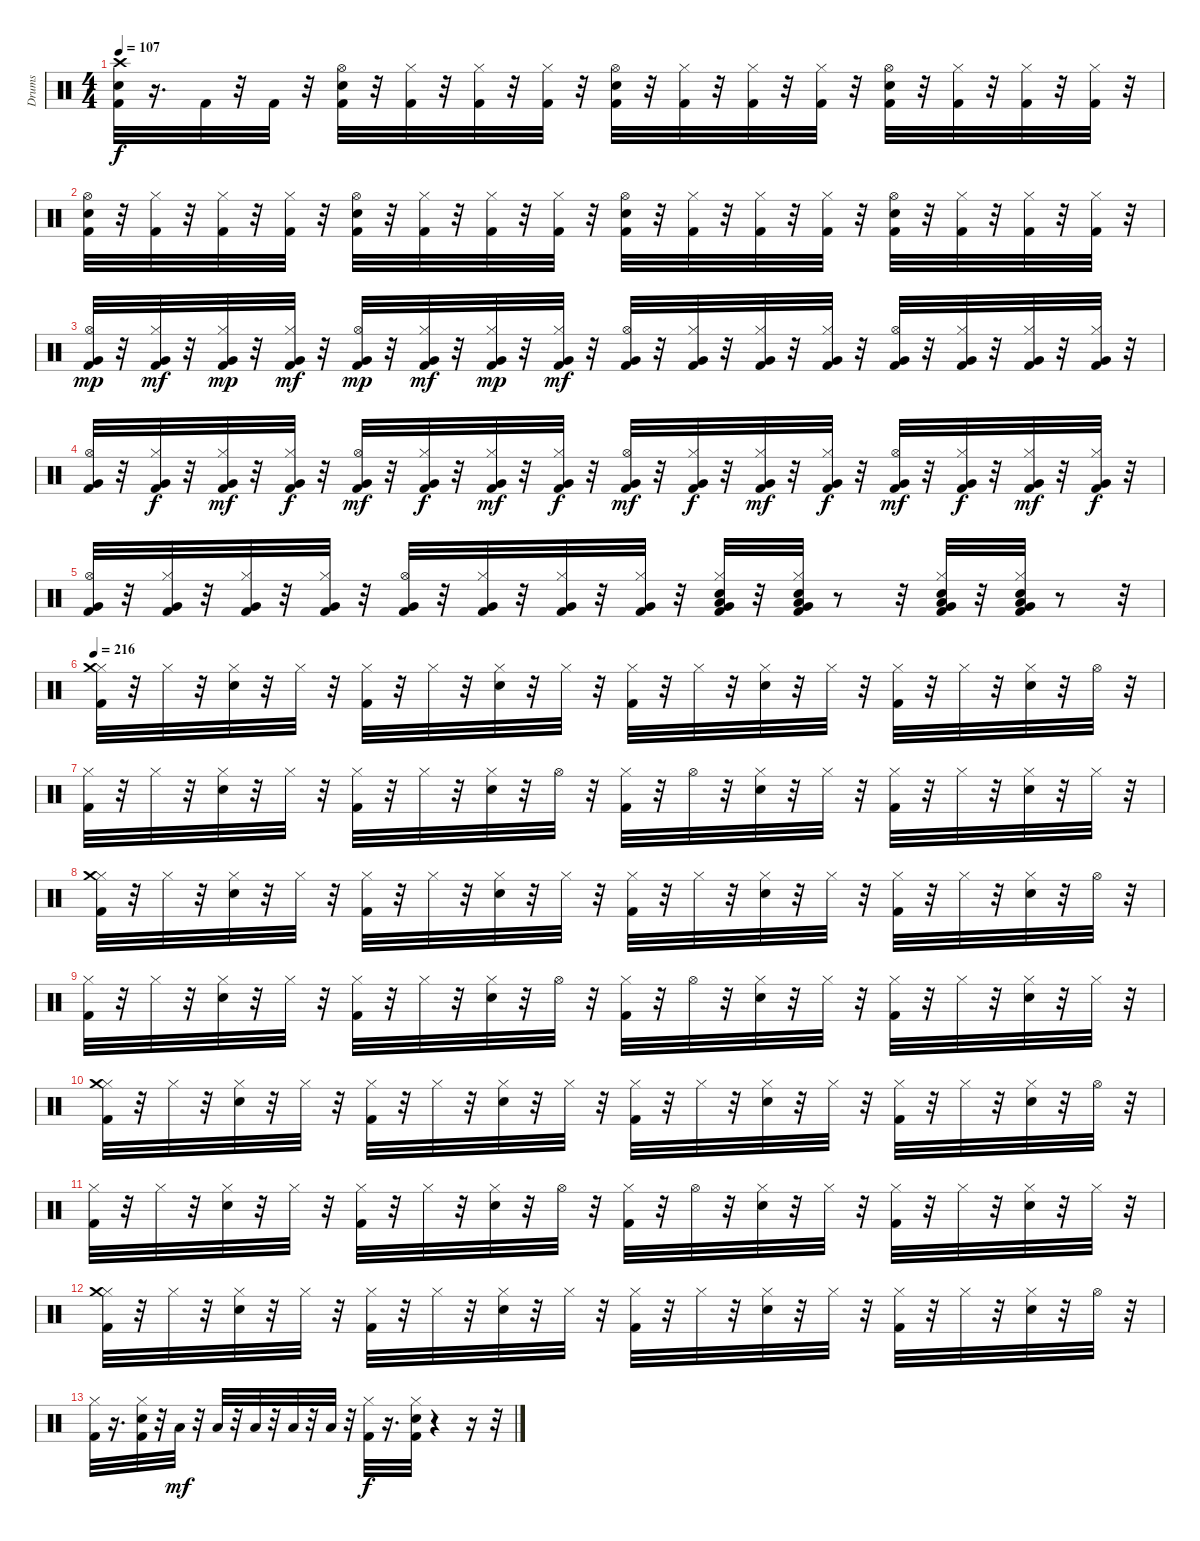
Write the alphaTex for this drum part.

\track ("Drums" "Drums") {instrument percussion}
\staff {score}
\articulation defaults
\ts (4 4)
\tempo 107
\clef neutral
\ks c
("Kick (hit) 2" "Snare (hit) 2" "Crash high (hit)").32{dy f} r.16{d} "Kick (hit) 2".32 r.32 "Kick (hit) 2".32 r.32 ("Kick (hit) 2" "Snare (hit) 2" "Hi-Hat (open)").32 r.32 ("Kick (hit) 2" "Hi-Hat (closed)").32 r.32 ("Kick (hit) 2" "Hi-Hat (closed)").32 r.32 ("Kick (hit) 2" "Hi-Hat (closed)").32 r.32 ("Kick (hit) 2" "Snare (hit) 2" "Hi-Hat (open)").32 r.32 ("Kick (hit) 2" "Hi-Hat (closed)").32 r.32 ("Kick (hit) 2" "Hi-Hat (closed)").32 r.32 ("Kick (hit) 2" "Hi-Hat (closed)").32 r.32 ("Kick (hit) 2" "Snare (hit) 2" "Hi-Hat (open)").32 r.32 ("Kick (hit) 2" "Hi-Hat (closed)").32 r.32 ("Kick (hit) 2" "Hi-Hat (closed)").32 r.32 ("Kick (hit) 2" "Hi-Hat (closed)").32 r.32 |
("Kick (hit) 2" "Snare (hit) 2" "Hi-Hat (open)").32 r.32 ("Kick (hit) 2" "Hi-Hat (closed)").32 r.32 ("Kick (hit) 2" "Hi-Hat (closed)").32 r.32 ("Kick (hit) 2" "Hi-Hat (closed)").32 r.32 ("Kick (hit) 2" "Snare (hit) 2" "Hi-Hat (open)").32 r.32 ("Kick (hit) 2" "Hi-Hat (closed)").32 r.32 ("Kick (hit) 2" "Hi-Hat (closed)").32 r.32 ("Kick (hit) 2" "Hi-Hat (closed)").32 r.32 ("Kick (hit) 2" "Snare (hit) 2" "Hi-Hat (open)").32 r.32 ("Kick (hit) 2" "Hi-Hat (closed)").32 r.32 ("Kick (hit) 2" "Hi-Hat (closed)").32 r.32 ("Kick (hit) 2" "Hi-Hat (closed)").32 r.32 ("Kick (hit) 2" "Snare (hit) 2" "Hi-Hat (open)").32 r.32 ("Kick (hit) 2" "Hi-Hat (closed)").32 r.32 ("Kick (hit) 2" "Hi-Hat (closed)").32 r.32 ("Kick (hit) 2" "Hi-Hat (closed)").32 r.32 |
("Kick (hit) 2" "Very Low Tom (hit)" "Hi-Hat (open)").32{dy mp} r.32 ("Kick (hit) 2" "Hi-Hat (closed)" "Very Low Tom (hit)").32{dy mf} r.32 ("Kick (hit) 2" "Hi-Hat (closed)" "Very Low Tom (hit)").32{dy mp} r.32 ("Kick (hit) 2" "Hi-Hat (closed)" "Very Low Tom (hit)").32{dy mf} r.32 ("Kick (hit) 2" "Very Low Tom (hit)" "Hi-Hat (open)").32{dy mp} r.32 ("Kick (hit) 2" "Hi-Hat (closed)" "Very Low Tom (hit)").32{dy mf} r.32 ("Kick (hit) 2" "Hi-Hat (closed)" "Very Low Tom (hit)").32{dy mp} r.32 ("Kick (hit) 2" "Hi-Hat (closed)" "Very Low Tom (hit)").32{dy mf} r.32 ("Kick (hit) 2" "Very Low Tom (hit)" "Hi-Hat (open)").32 r.32 ("Kick (hit) 2" "Hi-Hat (closed)" "Very Low Tom (hit)").32 r.32 ("Kick (hit) 2" "Hi-Hat (closed)" "Very Low Tom (hit)").32 r.32 ("Kick (hit) 2" "Hi-Hat (closed)" "Very Low Tom (hit)").32 r.32 ("Kick (hit) 2" "Very Low Tom (hit)" "Hi-Hat (open)").32 r.32 ("Kick (hit) 2" "Hi-Hat (closed)" "Very Low Tom (hit)").32 r.32 ("Kick (hit) 2" "Hi-Hat (closed)" "Very Low Tom (hit)").32 r.32 ("Kick (hit) 2" "Hi-Hat (closed)" "Very Low Tom (hit)").32 r.32 |
("Kick (hit) 2" "Very Low Tom (hit)" "Hi-Hat (open)").32 r.32 ("Kick (hit) 2" "Hi-Hat (closed)" "Very Low Tom (hit)").32{dy f} r.32 ("Kick (hit) 2" "Hi-Hat (closed)" "Very Low Tom (hit)").32{dy mf} r.32 ("Kick (hit) 2" "Hi-Hat (closed)" "Very Low Tom (hit)").32{dy f} r.32 ("Kick (hit) 2" "Very Low Tom (hit)" "Hi-Hat (open)").32{dy mf} r.32 ("Kick (hit) 2" "Hi-Hat (closed)" "Very Low Tom (hit)").32{dy f} r.32 ("Kick (hit) 2" "Hi-Hat (closed)" "Very Low Tom (hit)").32{dy mf} r.32 ("Kick (hit) 2" "Hi-Hat (closed)" "Very Low Tom (hit)").32{dy f} r.32 ("Kick (hit) 2" "Very Low Tom (hit)" "Hi-Hat (open)").32{dy mf} r.32 ("Kick (hit) 2" "Hi-Hat (closed)" "Very Low Tom (hit)").32{dy f} r.32 ("Kick (hit) 2" "Hi-Hat (closed)" "Very Low Tom (hit)").32{dy mf} r.32 ("Kick (hit) 2" "Hi-Hat (closed)" "Very Low Tom (hit)").32{dy f} r.32 ("Kick (hit) 2" "Very Low Tom (hit)" "Hi-Hat (open)").32{dy mf} r.32 ("Kick (hit) 2" "Hi-Hat (closed)" "Very Low Tom (hit)").32{dy f} r.32 ("Kick (hit) 2" "Hi-Hat (closed)" "Very Low Tom (hit)").32{dy mf} r.32 ("Kick (hit) 2" "Hi-Hat (closed)" "Very Low Tom (hit)").32{dy f} r.32 |
("Kick (hit) 2" "Very Low Tom (hit)" "Hi-Hat (open)").32 r.32 ("Kick (hit) 2" "Hi-Hat (closed)" "Very Low Tom (hit)").32 r.32 ("Kick (hit) 2" "Hi-Hat (closed)" "Very Low Tom (hit)").32 r.32 ("Kick (hit) 2" "Hi-Hat (closed)" "Very Low Tom (hit)").32 r.32 ("Kick (hit) 2" "Very Low Tom (hit)" "Hi-Hat (open)").32 r.32 ("Kick (hit) 2" "Hi-Hat (closed)" "Very Low Tom (hit)").32 r.32 ("Kick (hit) 2" "Hi-Hat (closed)" "Very Low Tom (hit)").32 r.32 ("Kick (hit) 2" "Hi-Hat (closed)" "Very Low Tom (hit)").32 r.32 ("Kick (hit) 2" "Snare (hit) 2" "Low Floor Tom (hit)" "Hi-Hat (closed)" "Very Low Tom (hit)").32 r.32 ("Kick (hit) 2" "Snare (hit) 2" "Low Floor Tom (hit)" "Hi-Hat (closed)" "Very Low Tom (hit)").32 r.8 r.32 ("Kick (hit) 2" "Snare (hit) 2" "Low Floor Tom (hit)" "Hi-Hat (closed)" "Very Low Tom (hit)").32 r.32 ("Kick (hit) 2" "Snare (hit) 2" "Low Floor Tom (hit)" "Hi-Hat (closed)" "Very Low Tom (hit)").32 r.8 r.32 |
\tempo 216
("Kick (hit) 2" "Hi-Hat (closed)" "Crash medium (hit)").32 r.32 "Hi-Hat (closed)".32 r.32 ("Snare (hit) 2" "Hi-Hat (closed)").32 r.32 "Hi-Hat (closed)".32 r.32 ("Kick (hit) 2" "Hi-Hat (closed)").32 r.32 "Hi-Hat (closed)".32 r.32 ("Snare (hit) 2" "Hi-Hat (closed)").32 r.32 "Hi-Hat (closed)".32 r.32 ("Kick (hit) 2" "Hi-Hat (closed)").32 r.32 "Hi-Hat (closed)".32 r.32 ("Snare (hit) 2" "Hi-Hat (closed)").32 r.32 "Hi-Hat (closed)".32 r.32 ("Kick (hit) 2" "Hi-Hat (closed)").32 r.32 "Hi-Hat (closed)".32 r.32 ("Snare (hit) 2" "Hi-Hat (closed)").32 r.32 "Hi-Hat (open)".32 r.32 |
("Kick (hit) 2" "Hi-Hat (closed)").32 r.32 "Hi-Hat (closed)".32 r.32 ("Snare (hit) 2" "Hi-Hat (closed)").32 r.32 "Hi-Hat (closed)".32 r.32 ("Kick (hit) 2" "Hi-Hat (closed)").32 r.32 "Hi-Hat (closed)".32 r.32 ("Snare (hit) 2" "Hi-Hat (closed)").32 r.32 "Hi-Hat (open)".32 r.32 ("Kick (hit) 2" "Hi-Hat (closed)").32 r.32 "Hi-Hat (open)".32 r.32 ("Snare (hit) 2" "Hi-Hat (closed)").32 r.32 "Hi-Hat (closed)".32 r.32 ("Kick (hit) 2" "Hi-Hat (closed)").32 r.32 "Hi-Hat (closed)".32 r.32 ("Snare (hit) 2" "Hi-Hat (closed)").32 r.32 "Hi-Hat (closed)".32 r.32 |
("Kick (hit) 2" "Hi-Hat (closed)" "Crash medium (hit)").32 r.32 "Hi-Hat (closed)".32 r.32 ("Snare (hit) 2" "Hi-Hat (closed)").32 r.32 "Hi-Hat (closed)".32 r.32 ("Kick (hit) 2" "Hi-Hat (closed)").32 r.32 "Hi-Hat (closed)".32 r.32 ("Snare (hit) 2" "Hi-Hat (closed)").32 r.32 "Hi-Hat (closed)".32 r.32 ("Kick (hit) 2" "Hi-Hat (closed)").32 r.32 "Hi-Hat (closed)".32 r.32 ("Snare (hit) 2" "Hi-Hat (closed)").32 r.32 "Hi-Hat (closed)".32 r.32 ("Kick (hit) 2" "Hi-Hat (closed)").32 r.32 "Hi-Hat (closed)".32 r.32 ("Snare (hit) 2" "Hi-Hat (closed)").32 r.32 "Hi-Hat (open)".32 r.32 |
("Kick (hit) 2" "Hi-Hat (closed)").32 r.32 "Hi-Hat (closed)".32 r.32 ("Snare (hit) 2" "Hi-Hat (closed)").32 r.32 "Hi-Hat (closed)".32 r.32 ("Kick (hit) 2" "Hi-Hat (closed)").32 r.32 "Hi-Hat (closed)".32 r.32 ("Snare (hit) 2" "Hi-Hat (closed)").32 r.32 "Hi-Hat (open)".32 r.32 ("Kick (hit) 2" "Hi-Hat (closed)").32 r.32 "Hi-Hat (open)".32 r.32 ("Snare (hit) 2" "Hi-Hat (closed)").32 r.32 "Hi-Hat (closed)".32 r.32 ("Kick (hit) 2" "Hi-Hat (closed)").32 r.32 "Hi-Hat (closed)".32 r.32 ("Snare (hit) 2" "Hi-Hat (closed)").32 r.32 "Hi-Hat (closed)".32 r.32 |
("Kick (hit) 2" "Hi-Hat (closed)" "Crash medium (hit)").32 r.32 "Hi-Hat (closed)".32 r.32 ("Snare (hit) 2" "Hi-Hat (closed)").32 r.32 "Hi-Hat (closed)".32 r.32 ("Kick (hit) 2" "Hi-Hat (closed)").32 r.32 "Hi-Hat (closed)".32 r.32 ("Snare (hit) 2" "Hi-Hat (closed)").32 r.32 "Hi-Hat (closed)".32 r.32 ("Kick (hit) 2" "Hi-Hat (closed)").32 r.32 "Hi-Hat (closed)".32 r.32 ("Snare (hit) 2" "Hi-Hat (closed)").32 r.32 "Hi-Hat (closed)".32 r.32 ("Kick (hit) 2" "Hi-Hat (closed)").32 r.32 "Hi-Hat (closed)".32 r.32 ("Snare (hit) 2" "Hi-Hat (closed)").32 r.32 "Hi-Hat (open)".32 r.32 |
("Kick (hit) 2" "Hi-Hat (closed)").32 r.32 "Hi-Hat (closed)".32 r.32 ("Snare (hit) 2" "Hi-Hat (closed)").32 r.32 "Hi-Hat (closed)".32 r.32 ("Kick (hit) 2" "Hi-Hat (closed)").32 r.32 "Hi-Hat (closed)".32 r.32 ("Snare (hit) 2" "Hi-Hat (closed)").32 r.32 "Hi-Hat (open)".32 r.32 ("Kick (hit) 2" "Hi-Hat (closed)").32 r.32 "Hi-Hat (open)".32 r.32 ("Snare (hit) 2" "Hi-Hat (closed)").32 r.32 "Hi-Hat (closed)".32 r.32 ("Kick (hit) 2" "Hi-Hat (closed)").32 r.32 "Hi-Hat (closed)".32 r.32 ("Snare (hit) 2" "Hi-Hat (closed)").32 r.32 "Hi-Hat (closed)".32 r.32 |
("Kick (hit) 2" "Hi-Hat (closed)" "Crash medium (hit)").32 r.32 "Hi-Hat (closed)".32 r.32 ("Snare (hit) 2" "Hi-Hat (closed)").32 r.32 "Hi-Hat (closed)".32 r.32 ("Kick (hit) 2" "Hi-Hat (closed)").32 r.32 "Hi-Hat (closed)".32 r.32 ("Snare (hit) 2" "Hi-Hat (closed)").32 r.32 "Hi-Hat (closed)".32 r.32 ("Kick (hit) 2" "Hi-Hat (closed)").32 r.32 "Hi-Hat (closed)".32 r.32 ("Snare (hit) 2" "Hi-Hat (closed)").32 r.32 "Hi-Hat (closed)".32 r.32 ("Kick (hit) 2" "Hi-Hat (closed)").32 r.32 "Hi-Hat (closed)".32 r.32 ("Snare (hit) 2" "Hi-Hat (closed)").32 r.32 "Hi-Hat (open)".32 r.32 |
("Kick (hit) 2" "Hi-Hat (closed)").32 r.16{d} ("Kick (hit) 2" "Snare (hit) 2" "Hi-Hat (closed)").32 r.32 "Low Tom (hit)".32{dy mf} r.32 "Low Tom (hit)".32 r.32 "Low Tom (hit)".32 r.32 "Low Tom (hit)".32 r.32 "Low Tom (hit)".32 r.32 ("Kick (hit) 2" "Hi-Hat (closed)").32{dy f} r.16{d} ("Kick (hit) 2" "Snare (hit) 2" "Hi-Hat (closed)").32 r.4 r.16 r.32
